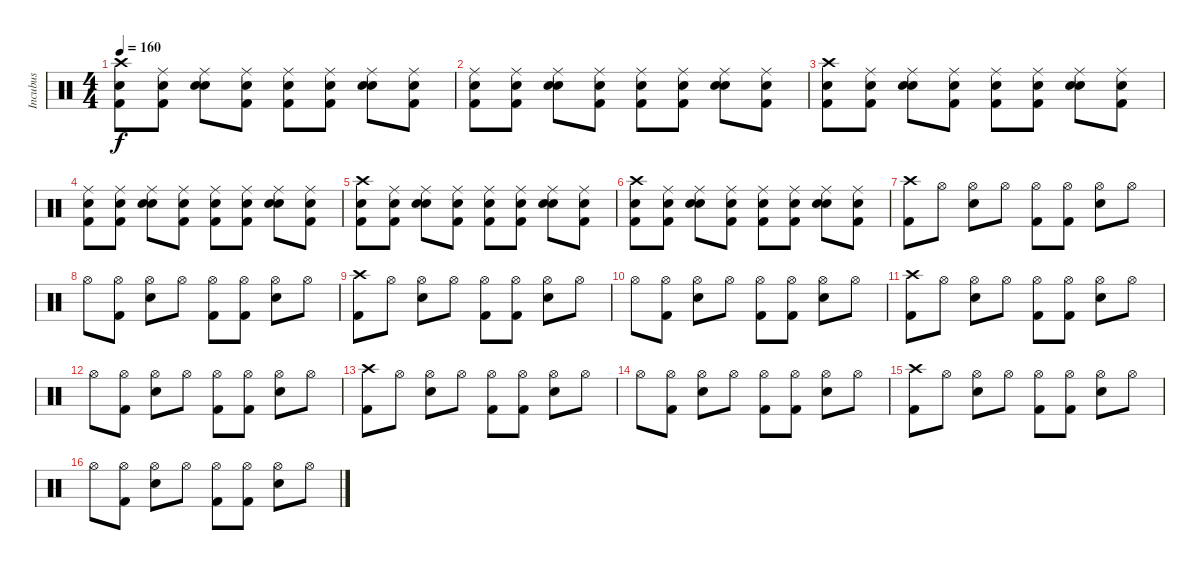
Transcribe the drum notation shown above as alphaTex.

\track ("Incubus" "Incubus") {instrument percussion}
\staff {score}
\articulation defaults
\ts (4 4)
\tempo 160
\clef neutral
\ks c
("Crash high (hit)" "Snare (hit) 2" "Kick (hit) 2").8{dy f} ("Ride (middle)" "Snare (hit) 2" "Kick (hit) 2").8 ("Ride (middle)" "Snare (hit) 2" "Snare (hit) 2").8 ("Ride (middle)" "Snare (hit)" "Kick (hit) 2").8 ("Ride (middle)" "Snare (hit) 2" "Kick (hit) 2").8 ("Ride (middle)" "Snare (hit) 2" "Kick (hit) 2").8 ("Ride (middle)" "Snare (hit) 2" "Snare (hit) 2").8 ("Ride (middle)" "Snare (hit) 2" "Kick (hit) 2").8 |
("Ride (middle)" "Snare (hit) 2" "Kick (hit) 2").8 ("Ride (middle)" "Snare (hit) 2" "Kick (hit) 2").8 ("Ride (middle)" "Snare (hit) 2" "Snare (hit) 2").8 ("Ride (middle)" "Snare (hit)" "Kick (hit) 2").8 ("Ride (middle)" "Snare (hit) 2" "Kick (hit) 2").8 ("Ride (middle)" "Snare (hit) 2" "Kick (hit) 2").8 ("Ride (middle)" "Snare (hit) 2" "Snare (hit) 2").8 ("Ride (middle)" "Snare (hit) 2" "Kick (hit) 2").8 |
("Crash high (hit)" "Snare (hit) 2" "Kick (hit) 2").8 ("Ride (middle)" "Snare (hit) 2" "Kick (hit) 2").8 ("Ride (middle)" "Snare (hit) 2" "Snare (hit) 2").8 ("Ride (middle)" "Snare (hit)" "Kick (hit) 2").8 ("Ride (middle)" "Snare (hit) 2" "Kick (hit) 2").8 ("Ride (middle)" "Snare (hit) 2" "Kick (hit) 2").8 ("Ride (middle)" "Snare (hit) 2" "Snare (hit) 2").8 ("Ride (middle)" "Snare (hit) 2" "Kick (hit) 2").8 |
("Ride (middle)" "Snare (hit) 2" "Kick (hit) 2").8 ("Ride (middle)" "Snare (hit) 2" "Kick (hit) 2").8 ("Ride (middle)" "Snare (hit) 2" "Snare (hit) 2").8 ("Ride (middle)" "Snare (hit)" "Kick (hit) 2").8 ("Ride (middle)" "Snare (hit) 2" "Kick (hit) 2").8 ("Ride (middle)" "Snare (hit) 2" "Kick (hit) 2").8 ("Ride (middle)" "Snare (hit) 2" "Snare (hit) 2").8 ("Ride (middle)" "Snare (hit) 2" "Kick (hit) 2").8 |
("Crash high (hit)" "Snare (hit) 2" "Kick (hit) 2").8 ("Ride (middle)" "Snare (hit) 2" "Kick (hit) 2").8 ("Ride (middle)" "Snare (hit) 2" "Snare (hit) 2").8 ("Ride (middle)" "Snare (hit)" "Kick (hit) 2").8 ("Ride (middle)" "Snare (hit) 2" "Kick (hit) 2").8 ("Ride (middle)" "Snare (hit) 2" "Kick (hit) 2").8 ("Ride (middle)" "Snare (hit) 2" "Snare (hit) 2").8 ("Ride (middle)" "Snare (hit) 2" "Kick (hit) 2").8 |
("Crash high (hit)" "Snare (hit) 2" "Kick (hit) 2").8 ("Ride (middle)" "Snare (hit) 2" "Kick (hit) 2").8 ("Ride (middle)" "Snare (hit) 2" "Snare (hit) 2").8 ("Ride (middle)" "Snare (hit)" "Kick (hit) 2").8 ("Ride (middle)" "Snare (hit) 2" "Kick (hit) 2").8 ("Ride (middle)" "Snare (hit) 2" "Kick (hit) 2").8 ("Ride (middle)" "Snare (hit) 2" "Snare (hit) 2").8 ("Ride (middle)" "Snare (hit) 2" "Kick (hit) 2").8 |
("Crash high (hit)" "Kick (hit) 2").8 "Hi-Hat (open)".8 ("Hi-Hat (open)" "Snare (hit) 2").8 "Hi-Hat (open)".8 ("Hi-Hat (open)" "Kick (hit) 2").8 ("Hi-Hat (open)" "Kick (hit) 2").8 ("Hi-Hat (open)" "Snare (hit) 2").8 "Hi-Hat (open)".8 |
"Hi-Hat (open)".8 ("Hi-Hat (open)" "Kick (hit) 2").8 ("Hi-Hat (open)" "Snare (hit) 2").8 "Hi-Hat (open)".8 ("Hi-Hat (open)" "Kick (hit) 2").8 ("Hi-Hat (open)" "Kick (hit) 2").8 ("Hi-Hat (open)" "Snare (hit) 2").8 "Hi-Hat (open)".8 |
("Crash high (hit)" "Kick (hit) 2").8 "Hi-Hat (open)".8 ("Hi-Hat (open)" "Snare (hit) 2").8 "Hi-Hat (open)".8 ("Hi-Hat (open)" "Kick (hit) 2").8 ("Hi-Hat (open)" "Kick (hit) 2").8 ("Hi-Hat (open)" "Snare (hit) 2").8 "Hi-Hat (open)".8 |
"Hi-Hat (open)".8 ("Hi-Hat (open)" "Kick (hit) 2").8 ("Hi-Hat (open)" "Snare (hit) 2").8 "Hi-Hat (open)".8 ("Hi-Hat (open)" "Kick (hit) 2").8 ("Hi-Hat (open)" "Kick (hit) 2").8 ("Hi-Hat (open)" "Snare (hit) 2").8 "Hi-Hat (open)".8 |
("Crash high (hit)" "Kick (hit) 2").8 "Hi-Hat (open)".8 ("Hi-Hat (open)" "Snare (hit) 2").8 "Hi-Hat (open)".8 ("Hi-Hat (open)" "Kick (hit) 2").8 ("Hi-Hat (open)" "Kick (hit) 2").8 ("Hi-Hat (open)" "Snare (hit) 2").8 "Hi-Hat (open)".8 |
"Hi-Hat (open)".8 ("Hi-Hat (open)" "Kick (hit) 2").8 ("Hi-Hat (open)" "Snare (hit) 2").8 "Hi-Hat (open)".8 ("Hi-Hat (open)" "Kick (hit) 2").8 ("Hi-Hat (open)" "Kick (hit) 2").8 ("Hi-Hat (open)" "Snare (hit) 2").8 "Hi-Hat (open)".8 |
("Crash high (hit)" "Kick (hit) 2").8 "Hi-Hat (open)".8 ("Hi-Hat (open)" "Snare (hit) 2").8 "Hi-Hat (open)".8 ("Hi-Hat (open)" "Kick (hit) 2").8 ("Hi-Hat (open)" "Kick (hit) 2").8 ("Hi-Hat (open)" "Snare (hit) 2").8 "Hi-Hat (open)".8 |
"Hi-Hat (open)".8 ("Hi-Hat (open)" "Kick (hit) 2").8 ("Hi-Hat (open)" "Snare (hit) 2").8 "Hi-Hat (open)".8 ("Hi-Hat (open)" "Kick (hit) 2").8 ("Hi-Hat (open)" "Kick (hit) 2").8 ("Hi-Hat (open)" "Snare (hit) 2").8 "Hi-Hat (open)".8 |
("Crash high (hit)" "Kick (hit) 2").8 "Hi-Hat (open)".8 ("Hi-Hat (open)" "Snare (hit) 2").8 "Hi-Hat (open)".8 ("Hi-Hat (open)" "Kick (hit) 2").8 ("Hi-Hat (open)" "Kick (hit) 2").8 ("Hi-Hat (open)" "Snare (hit) 2").8 "Hi-Hat (open)".8 |
"Hi-Hat (open)".8 ("Hi-Hat (open)" "Kick (hit) 2").8 ("Hi-Hat (open)" "Snare (hit) 2").8 "Hi-Hat (open)".8 ("Hi-Hat (open)" "Kick (hit) 2").8 ("Hi-Hat (open)" "Kick (hit) 2").8 ("Hi-Hat (open)" "Snare (hit) 2").8 "Hi-Hat (open)".8
